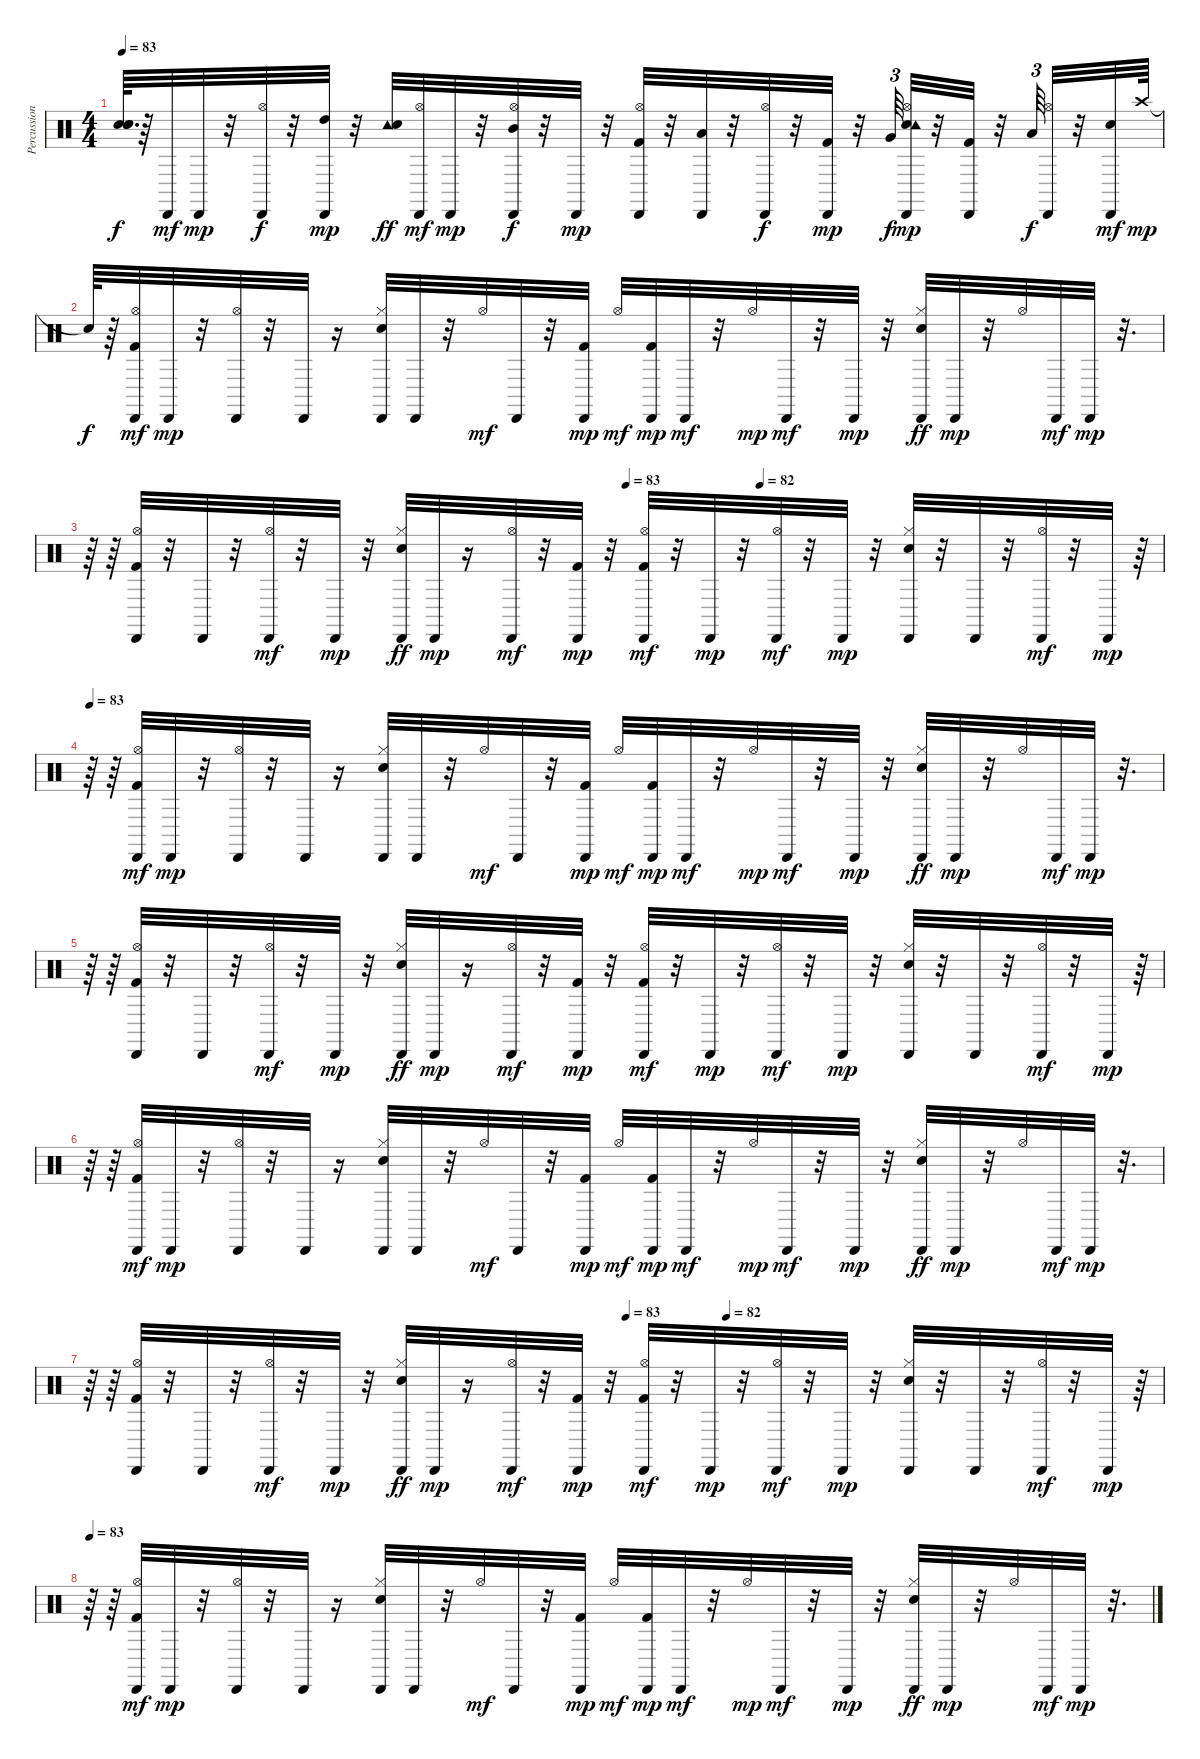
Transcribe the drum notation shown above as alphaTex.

\track ("Percussion" "Percussion") {instrument percussion}
\staff {score}
\articulation defaults
\ts (4 4)
\tempo 83
\clef neutral
\ks c
("Snare (hit)"{t} "Snare (hit)"{t} "Snare (hit)"{t}).64{d dy f} r.64 "Cabasa (hit)".32{dy mf} "Cabasa (hit)".32{dy mp} r.32 ("Hi-Hat (open)" "Cabasa (hit)").32{dy f} r.32 ("High Tom (hit)" "Cabasa (hit)").32{dy mp} r.32 ("Tambourine (hit)" "Electric Snare (hit)").32{dy ff} ("Hi-Hat (open)" "Cabasa (hit)").32{dy mf} "Cabasa (hit)".32{dy mp} r.32 ("Mid Tom (hit)" "Hi-Hat (open)" "Cabasa (hit)").32{dy f} r.32 "Cabasa (hit)".32{dy mp} r.32 ("Kick (hit) 2" "Cabasa (hit)" "Hi-Hat (open)").32 r.32 ("Low Tom (hit)" "Cabasa (hit)").32 r.32 ("Hi-Hat (open)" "Cabasa (hit)").32{dy f} r.32 ("Kick (hit) 2" "Cabasa (hit)").32{dy mp} r.32 "Very Low Tom (hit)".64{tu (3 2) dy f} ("Hi-Hat (open)" "Cabasa (hit)" "Electric Snare (hit)" "Tambourine (hit)").32{dy mp} r.32 ("Kick (hit) 2" "Cabasa (hit)").32 r.32 "Low Floor Tom (hit)".64{tu (3 2) dy f} ("Hi-Hat (open)" "Cabasa (hit)").32 r.32 ("Electric Snare (hit)" "Cabasa (hit)").32{dy mf} "Crash high (hit)".64{dy mp} |
"Snare (hit)"{t}.64{dy f} r.64 ("Kick (hit) 2" "Cabasa (hit)" "Hi-Hat (open)").32{dy mf} "Cabasa (hit)".32{dy mp} r.32 ("Hi-Hat (open)" "Cabasa (hit)").32 r.32 "Cabasa (hit)".32 r.16 ("Hi-Hat (closed)" "Electric Snare (hit)" "Cabasa (hit)").32 "Cabasa (hit)".32 r.32 "Hi-Hat (open)".32{dy mf} "Cabasa (hit)".32 r.32 ("Kick (hit) 2" "Cabasa (hit)").32{dy mp} "Hi-Hat (open)".32{dy mf} ("Kick (hit) 2" "Cabasa (hit)").32{dy mp} "Cabasa (hit)".32{dy mf} r.32 "Hi-Hat (open)".32{dy mp} "Cabasa (hit)".32{dy mf} r.32 "Cabasa (hit)".32{dy mp} r.32 ("Hi-Hat (closed)" "Cabasa (hit)" "Electric Snare (hit)").32{dy ff} "Cabasa (hit)".32{dy mp} r.32 "Hi-Hat (open)".32 "Cabasa (hit)".32{dy mf} "Cabasa (hit)".32{dy mp} r.32{d} |
\tempo (83 0.5)
\tempo (82 0.625)
r.64 r.64 ("Kick (hit) 2" "Hi-Hat (open)" "Cabasa (hit)").32 r.32 "Cabasa (hit)".32 r.32 ("Hi-Hat (open)" "Cabasa (hit)").32{dy mf} r.32 "Cabasa (hit)".32{dy mp} r.32 ("Hi-Hat (closed)" "Cabasa (hit)" "Electric Snare (hit)").32{dy ff} "Cabasa (hit)".32{dy mp} r.16 ("Cabasa (hit)" "Hi-Hat (open)").32{dy mf} r.32 ("Cabasa (hit)" "Kick (hit) 2").32{dy mp} r.32 ("Kick (hit) 2" "Cabasa (hit)" "Hi-Hat (open)").32{dy mf} r.32 "Cabasa (hit)".32{dy mp} r.32 ("Hi-Hat (open)" "Cabasa (hit)").32{dy mf} r.32 "Cabasa (hit)".32{dy mp} r.32 ("Electric Snare (hit)" "Hi-Hat (closed)" "Cabasa (hit)").32 r.32 "Cabasa (hit)".32 r.32 ("Hi-Hat (open)" "Cabasa (hit)").32{dy mf} r.32 "Cabasa (hit)".32{dy mp} r.64 |
\tempo 83
r.64 r.64 ("Kick (hit) 2" "Cabasa (hit)" "Hi-Hat (open)").32{dy mf} "Cabasa (hit)".32{dy mp} r.32 ("Hi-Hat (open)" "Cabasa (hit)").32 r.32 "Cabasa (hit)".32 r.16 ("Hi-Hat (closed)" "Electric Snare (hit)" "Cabasa (hit)").32 "Cabasa (hit)".32 r.32 "Hi-Hat (open)".32{dy mf} "Cabasa (hit)".32 r.32 ("Kick (hit) 2" "Cabasa (hit)").32{dy mp} "Hi-Hat (open)".32{dy mf} ("Kick (hit) 2" "Cabasa (hit)").32{dy mp} "Cabasa (hit)".32{dy mf} r.32 "Hi-Hat (open)".32{dy mp} "Cabasa (hit)".32{dy mf} r.32 "Cabasa (hit)".32{dy mp} r.32 ("Hi-Hat (closed)" "Cabasa (hit)" "Electric Snare (hit)").32{dy ff} "Cabasa (hit)".32{dy mp} r.32 "Hi-Hat (open)".32 "Cabasa (hit)".32{dy mf} "Cabasa (hit)".32{dy mp} r.32{d} |
r.64 r.64 ("Kick (hit) 2" "Hi-Hat (open)" "Cabasa (hit)").32 r.32 "Cabasa (hit)".32 r.32 ("Hi-Hat (open)" "Cabasa (hit)").32{dy mf} r.32 "Cabasa (hit)".32{dy mp} r.32 ("Hi-Hat (closed)" "Cabasa (hit)" "Electric Snare (hit)").32{dy ff} "Cabasa (hit)".32{dy mp} r.16 ("Cabasa (hit)" "Hi-Hat (open)").32{dy mf} r.32 ("Cabasa (hit)" "Kick (hit) 2").32{dy mp} r.32 ("Kick (hit) 2" "Cabasa (hit)" "Hi-Hat (open)").32{dy mf} r.32 "Cabasa (hit)".32{dy mp} r.32 ("Hi-Hat (open)" "Cabasa (hit)").32{dy mf} r.32 "Cabasa (hit)".32{dy mp} r.32 ("Electric Snare (hit)" "Hi-Hat (closed)" "Cabasa (hit)").32 r.32 "Cabasa (hit)".32 r.32 ("Hi-Hat (open)" "Cabasa (hit)").32{dy mf} r.32 "Cabasa (hit)".32{dy mp} r.64 |
r.64 r.64 ("Kick (hit) 2" "Cabasa (hit)" "Hi-Hat (open)").32{dy mf} "Cabasa (hit)".32{dy mp} r.32 ("Hi-Hat (open)" "Cabasa (hit)").32 r.32 "Cabasa (hit)".32 r.16 ("Hi-Hat (closed)" "Electric Snare (hit)" "Cabasa (hit)").32 "Cabasa (hit)".32 r.32 "Hi-Hat (open)".32{dy mf} "Cabasa (hit)".32 r.32 ("Kick (hit) 2" "Cabasa (hit)").32{dy mp} "Hi-Hat (open)".32{dy mf} ("Kick (hit) 2" "Cabasa (hit)").32{dy mp} "Cabasa (hit)".32{dy mf} r.32 "Hi-Hat (open)".32{dy mp} "Cabasa (hit)".32{dy mf} r.32 "Cabasa (hit)".32{dy mp} r.32 ("Hi-Hat (closed)" "Cabasa (hit)" "Electric Snare (hit)").32{dy ff} "Cabasa (hit)".32{dy mp} r.32 "Hi-Hat (open)".32 "Cabasa (hit)".32{dy mf} "Cabasa (hit)".32{dy mp} r.32{d} |
\tempo (83 0.5)
\tempo (82 0.59375)
r.64 r.64 ("Kick (hit) 2" "Hi-Hat (open)" "Cabasa (hit)").32 r.32 "Cabasa (hit)".32 r.32 ("Hi-Hat (open)" "Cabasa (hit)").32{dy mf} r.32 "Cabasa (hit)".32{dy mp} r.32 ("Hi-Hat (closed)" "Cabasa (hit)" "Electric Snare (hit)").32{dy ff} "Cabasa (hit)".32{dy mp} r.16 ("Cabasa (hit)" "Hi-Hat (open)").32{dy mf} r.32 ("Cabasa (hit)" "Kick (hit) 2").32{dy mp} r.32 ("Kick (hit) 2" "Cabasa (hit)" "Hi-Hat (open)").32{dy mf} r.32 "Cabasa (hit)".32{dy mp} r.32 ("Hi-Hat (open)" "Cabasa (hit)").32{dy mf} r.32 "Cabasa (hit)".32{dy mp} r.32 ("Electric Snare (hit)" "Hi-Hat (closed)" "Cabasa (hit)").32 r.32 "Cabasa (hit)".32 r.32 ("Hi-Hat (open)" "Cabasa (hit)").32{dy mf} r.32 "Cabasa (hit)".32{dy mp} r.64 |
\tempo 83
r.64 r.64 ("Kick (hit) 2" "Cabasa (hit)" "Hi-Hat (open)").32{dy mf} "Cabasa (hit)".32{dy mp} r.32 ("Hi-Hat (open)" "Cabasa (hit)").32 r.32 "Cabasa (hit)".32 r.16 ("Hi-Hat (closed)" "Electric Snare (hit)" "Cabasa (hit)").32 "Cabasa (hit)".32 r.32 "Hi-Hat (open)".32{dy mf} "Cabasa (hit)".32 r.32 ("Kick (hit) 2" "Cabasa (hit)").32{dy mp} "Hi-Hat (open)".32{dy mf} ("Kick (hit) 2" "Cabasa (hit)").32{dy mp} "Cabasa (hit)".32{dy mf} r.32 "Hi-Hat (open)".32{dy mp} "Cabasa (hit)".32{dy mf} r.32 "Cabasa (hit)".32{dy mp} r.32 ("Hi-Hat (closed)" "Cabasa (hit)" "Electric Snare (hit)").32{dy ff} "Cabasa (hit)".32{dy mp} r.32 "Hi-Hat (open)".32 "Cabasa (hit)".32{dy mf} "Cabasa (hit)".32{dy mp} r.32{d}
